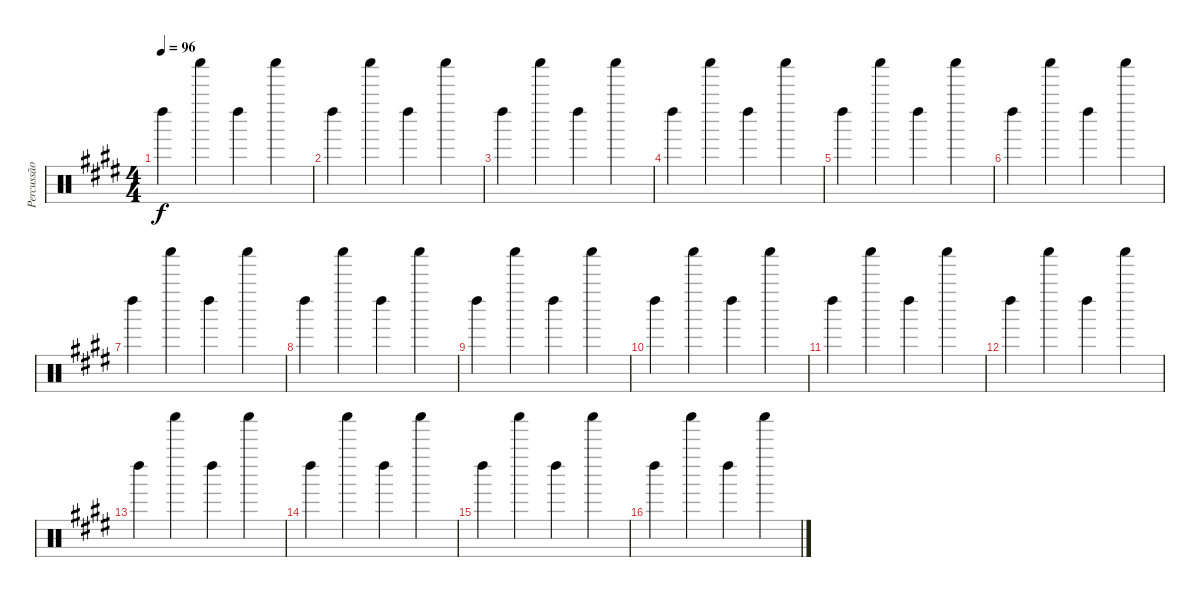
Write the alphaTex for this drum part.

\track ("Percussão" "Percussão") {instrument percussion}
\staff {score}
\articulation defaults
\ts (4 4)
\tempo 96
\clef neutral
\ks e "Left Maraca (hit)".4{dy f} "Shaker (hit)".4 "Left Maraca (hit)".4 "Shaker (hit)".4
|
"Left Maraca (hit)".4 "Shaker (hit)".4 "Left Maraca (hit)".4 "Shaker (hit)".4 |
"Left Maraca (hit)".4 "Shaker (hit)".4 "Left Maraca (hit)".4 "Shaker (hit)".4 |
"Left Maraca (hit)".4 "Shaker (hit)".4 "Left Maraca (hit)".4 "Shaker (hit)".4 |
"Left Maraca (hit)".4 "Shaker (hit)".4 "Left Maraca (hit)".4 "Shaker (hit)".4 |
"Left Maraca (hit)".4 "Shaker (hit)".4 "Left Maraca (hit)".4 "Shaker (hit)".4 |
"Left Maraca (hit)".4 "Shaker (hit)".4 "Left Maraca (hit)".4 "Shaker (hit)".4 |
"Left Maraca (hit)".4 "Shaker (hit)".4 "Left Maraca (hit)".4 "Shaker (hit)".4 |
"Left Maraca (hit)".4 "Shaker (hit)".4 "Left Maraca (hit)".4 "Shaker (hit)".4 |
"Left Maraca (hit)".4 "Shaker (hit)".4 "Left Maraca (hit)".4 "Shaker (hit)".4 |
"Left Maraca (hit)".4 "Shaker (hit)".4 "Left Maraca (hit)".4 "Shaker (hit)".4 |
"Left Maraca (hit)".4 "Shaker (hit)".4 "Left Maraca (hit)".4 "Shaker (hit)".4 |
"Left Maraca (hit)".4 "Shaker (hit)".4 "Left Maraca (hit)".4 "Shaker (hit)".4 |
"Left Maraca (hit)".4 "Shaker (hit)".4 "Left Maraca (hit)".4 "Shaker (hit)".4 |
"Left Maraca (hit)".4 "Shaker (hit)".4 "Left Maraca (hit)".4 "Shaker (hit)".4 |
"Left Maraca (hit)".4 "Shaker (hit)".4 "Left Maraca (hit)".4 "Shaker (hit)".4
